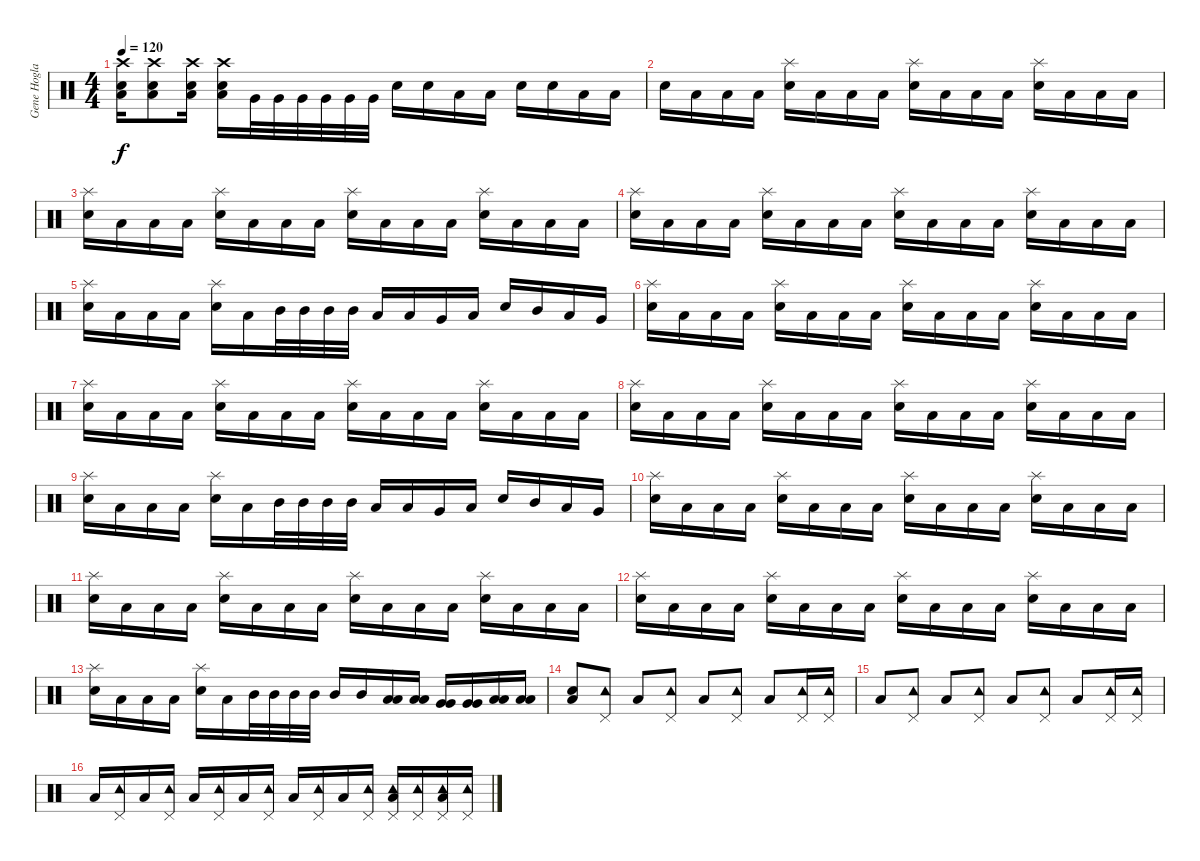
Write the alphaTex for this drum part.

\track ("Gene Hoglan" "Gene Hogla") {instrument percussion}
\staff {score}
\articulation defaults
\ts (4 4)
\tempo 120
\clef neutral
\ks c
("Low Floor Tom (hit)" "Electric Snare (hit)" "Crash high (hit)").16{dy f} ("Low Floor Tom (hit)" "Electric Snare (hit)" "Crash high (hit)").8 ("Low Floor Tom (hit)" "Electric Snare (hit)" "Crash high (hit)").16 ("Low Floor Tom (hit)" "Electric Snare (hit)" "Crash high (hit)").16 "Very Low Tom (hit)".32 "Very Low Tom (hit)".32 "Very Low Tom (hit)".32 "Very Low Tom (hit)".32 "Very Low Tom (hit)".32 "Very Low Tom (hit)".32 "Electric Snare (hit)".16 "Electric Snare (hit)".16 "Low Tom (hit)".16 "Low Tom (hit)".16 "Electric Snare (hit)".16 "Electric Snare (hit)".16 "Low Tom (hit)".16 "Low Tom (hit)".16 |
"Electric Snare (hit)".16 "Low Tom (hit)".16 "Low Tom (hit)".16 "Low Tom (hit)".16 ("Electric Snare (hit)" "Splash (hit)").16 "Low Tom (hit)".16 "Low Tom (hit)".16 "Low Tom (hit)".16 ("Electric Snare (hit)" "Splash (hit)").16 "Low Tom (hit)".16 "Low Tom (hit)".16 "Low Tom (hit)".16 ("Electric Snare (hit)" "Splash (hit)").16 "Low Tom (hit)".16 "Low Tom (hit)".16 "Low Tom (hit)".16 |
("Electric Snare (hit)" "Splash (hit)").16 "Low Tom (hit)".16 "Low Tom (hit)".16 "Low Tom (hit)".16 ("Electric Snare (hit)" "Splash (hit)").16 "Low Tom (hit)".16 "Low Tom (hit)".16 "Low Tom (hit)".16 ("Electric Snare (hit)" "Splash (hit)").16 "Low Tom (hit)".16 "Low Tom (hit)".16 "Low Tom (hit)".16 ("Electric Snare (hit)" "Splash (hit)").16 "Low Tom (hit)".16 "Low Tom (hit)".16 "Low Tom (hit)".16 |
("Electric Snare (hit)" "Splash (hit)").16 "Low Tom (hit)".16 "Low Tom (hit)".16 "Low Tom (hit)".16 ("Electric Snare (hit)" "Splash (hit)").16 "Low Tom (hit)".16 "Low Tom (hit)".16 "Low Tom (hit)".16 ("Electric Snare (hit)" "Splash (hit)").16 "Low Tom (hit)".16 "Low Tom (hit)".16 "Low Tom (hit)".16 ("Electric Snare (hit)" "Splash (hit)").16 "Low Tom (hit)".16 "Low Tom (hit)".16 "Low Tom (hit)".16 |
("Electric Snare (hit)" "Splash (hit)").16 "Low Tom (hit)".16 "Low Tom (hit)".16 "Low Tom (hit)".16 ("Electric Snare (hit)" "Splash (hit)").16 "Low Tom (hit)".16 "Mid Tom (hit)".32 "Mid Tom (hit)".32 "Mid Tom (hit)".32 "Mid Tom (hit)".32 "Low Tom (hit)".16 "Low Tom (hit)".16 "Very Low Tom (hit)".16 "Low Tom (hit)".16 "Electric Snare (hit)".16 "Mid Tom (hit)".16 "Low Tom (hit)".16 "Very Low Tom (hit)".16 |
("Electric Snare (hit)" "Splash (hit)").16 "Low Tom (hit)".16 "Low Tom (hit)".16 "Low Tom (hit)".16 ("Electric Snare (hit)" "Splash (hit)").16 "Low Tom (hit)".16 "Low Tom (hit)".16 "Low Tom (hit)".16 ("Electric Snare (hit)" "Splash (hit)").16 "Low Tom (hit)".16 "Low Tom (hit)".16 "Low Tom (hit)".16 ("Electric Snare (hit)" "Splash (hit)").16 "Low Tom (hit)".16 "Low Tom (hit)".16 "Low Tom (hit)".16 |
("Electric Snare (hit)" "Splash (hit)").16 "Low Tom (hit)".16 "Low Tom (hit)".16 "Low Tom (hit)".16 ("Electric Snare (hit)" "Splash (hit)").16 "Low Tom (hit)".16 "Low Tom (hit)".16 "Low Tom (hit)".16 ("Electric Snare (hit)" "Splash (hit)").16 "Low Tom (hit)".16 "Low Tom (hit)".16 "Low Tom (hit)".16 ("Electric Snare (hit)" "Splash (hit)").16 "Low Tom (hit)".16 "Low Tom (hit)".16 "Low Tom (hit)".16 |
("Electric Snare (hit)" "Splash (hit)").16 "Low Tom (hit)".16 "Low Tom (hit)".16 "Low Tom (hit)".16 ("Electric Snare (hit)" "Splash (hit)").16 "Low Tom (hit)".16 "Low Tom (hit)".16 "Low Tom (hit)".16 ("Electric Snare (hit)" "Splash (hit)").16 "Low Tom (hit)".16 "Low Tom (hit)".16 "Low Tom (hit)".16 ("Electric Snare (hit)" "Splash (hit)").16 "Low Tom (hit)".16 "Low Tom (hit)".16 "Low Tom (hit)".16 |
("Electric Snare (hit)" "Splash (hit)").16 "Low Tom (hit)".16 "Low Tom (hit)".16 "Low Tom (hit)".16 ("Electric Snare (hit)" "Splash (hit)").16 "Low Tom (hit)".16 "Mid Tom (hit)".32 "Mid Tom (hit)".32 "Mid Tom (hit)".32 "Mid Tom (hit)".32 "Low Tom (hit)".16 "Low Tom (hit)".16 "Very Low Tom (hit)".16 "Low Tom (hit)".16 "Electric Snare (hit)".16 "Mid Tom (hit)".16 "Low Tom (hit)".16 "Very Low Tom (hit)".16 |
("Electric Snare (hit)" "Splash (hit)").16 "Low Tom (hit)".16 "Low Tom (hit)".16 "Low Tom (hit)".16 ("Electric Snare (hit)" "Splash (hit)").16 "Low Tom (hit)".16 "Low Tom (hit)".16 "Low Tom (hit)".16 ("Electric Snare (hit)" "Splash (hit)").16 "Low Tom (hit)".16 "Low Tom (hit)".16 "Low Tom (hit)".16 ("Electric Snare (hit)" "Splash (hit)").16 "Low Tom (hit)".16 "Low Tom (hit)".16 "Low Tom (hit)".16 |
("Electric Snare (hit)" "Splash (hit)").16 "Low Tom (hit)".16 "Low Tom (hit)".16 "Low Tom (hit)".16 ("Electric Snare (hit)" "Splash (hit)").16 "Low Tom (hit)".16 "Low Tom (hit)".16 "Low Tom (hit)".16 ("Electric Snare (hit)" "Splash (hit)").16 "Low Tom (hit)".16 "Low Tom (hit)".16 "Low Tom (hit)".16 ("Electric Snare (hit)" "Splash (hit)").16 "Low Tom (hit)".16 "Low Tom (hit)".16 "Low Tom (hit)".16 |
("Electric Snare (hit)" "Splash (hit)").16 "Low Tom (hit)".16 "Low Tom (hit)".16 "Low Tom (hit)".16 ("Electric Snare (hit)" "Splash (hit)").16 "Low Tom (hit)".16 "Low Tom (hit)".16 "Low Tom (hit)".16 ("Electric Snare (hit)" "Splash (hit)").16 "Low Tom (hit)".16 "Low Tom (hit)".16 "Low Tom (hit)".16 ("Electric Snare (hit)" "Splash (hit)").16 "Low Tom (hit)".16 "Low Tom (hit)".16 "Low Tom (hit)".16 |
("Electric Snare (hit)" "Splash (hit)").16 "Low Tom (hit)".16 "Low Tom (hit)".16 "Low Tom (hit)".16 ("Electric Snare (hit)" "Splash (hit)").16 "Low Tom (hit)".16 "Mid Tom (hit)".32 "Mid Tom (hit)".32 "Mid Tom (hit)".32 "Mid Tom (hit)".32 "Mid Tom (hit)".16 "Mid Tom (hit)".16 ("Low Tom (hit)" "Low Tom (hit)").16 ("Low Tom (hit)" "Low Tom (hit)").16 ("Very Low Tom (hit)" "Very Low Tom (hit)").16 ("Very Low Tom (hit)" "Very Low Tom (hit)").16 ("Low Floor Tom (hit)" "Low Floor Tom (hit)").16 ("Low Floor Tom (hit)" "Low Floor Tom (hit)").16 |
("Low Floor Tom (hit)" "Electric Snare (hit)").8 ("Pedal Hi-Hat (hit)" "Tambourine (hit)").8 "Low Floor Tom (hit)".8 ("Pedal Hi-Hat (hit)" "Tambourine (hit)").8 "Low Floor Tom (hit)".8 ("Pedal Hi-Hat (hit)" "Tambourine (hit)").8 "Low Floor Tom (hit)".8 ("Pedal Hi-Hat (hit)" "Tambourine (hit)").16 ("Pedal Hi-Hat (hit)" "Tambourine (hit)").16 |
"Low Floor Tom (hit)".8 ("Pedal Hi-Hat (hit)" "Tambourine (hit)").8 "Low Floor Tom (hit)".8 ("Pedal Hi-Hat (hit)" "Tambourine (hit)").8 "Low Floor Tom (hit)".8 ("Pedal Hi-Hat (hit)" "Tambourine (hit)").8 "Low Floor Tom (hit)".8 ("Pedal Hi-Hat (hit)" "Tambourine (hit)").16 ("Pedal Hi-Hat (hit)" "Tambourine (hit)").16 |
"Low Floor Tom (hit)".16 ("Pedal Hi-Hat (hit)" "Tambourine (hit)").16 "Low Floor Tom (hit)".16 ("Pedal Hi-Hat (hit)" "Tambourine (hit)").16 "Low Floor Tom (hit)".16 ("Pedal Hi-Hat (hit)" "Tambourine (hit)").16 "Low Floor Tom (hit)".16 ("Pedal Hi-Hat (hit)" "Tambourine (hit)").16 "Low Floor Tom (hit)".16 ("Pedal Hi-Hat (hit)" "Tambourine (hit)").16 "Low Floor Tom (hit)".16 ("Pedal Hi-Hat (hit)" "Tambourine (hit)").16 ("Pedal Hi-Hat (hit)" "Tambourine (hit)" "Low Floor Tom (hit)").16 ("Pedal Hi-Hat (hit)" "Tambourine (hit)").16 ("Pedal Hi-Hat (hit)" "Tambourine (hit)" "Low Floor Tom (hit)").16 ("Pedal Hi-Hat (hit)" "Tambourine (hit)").16
